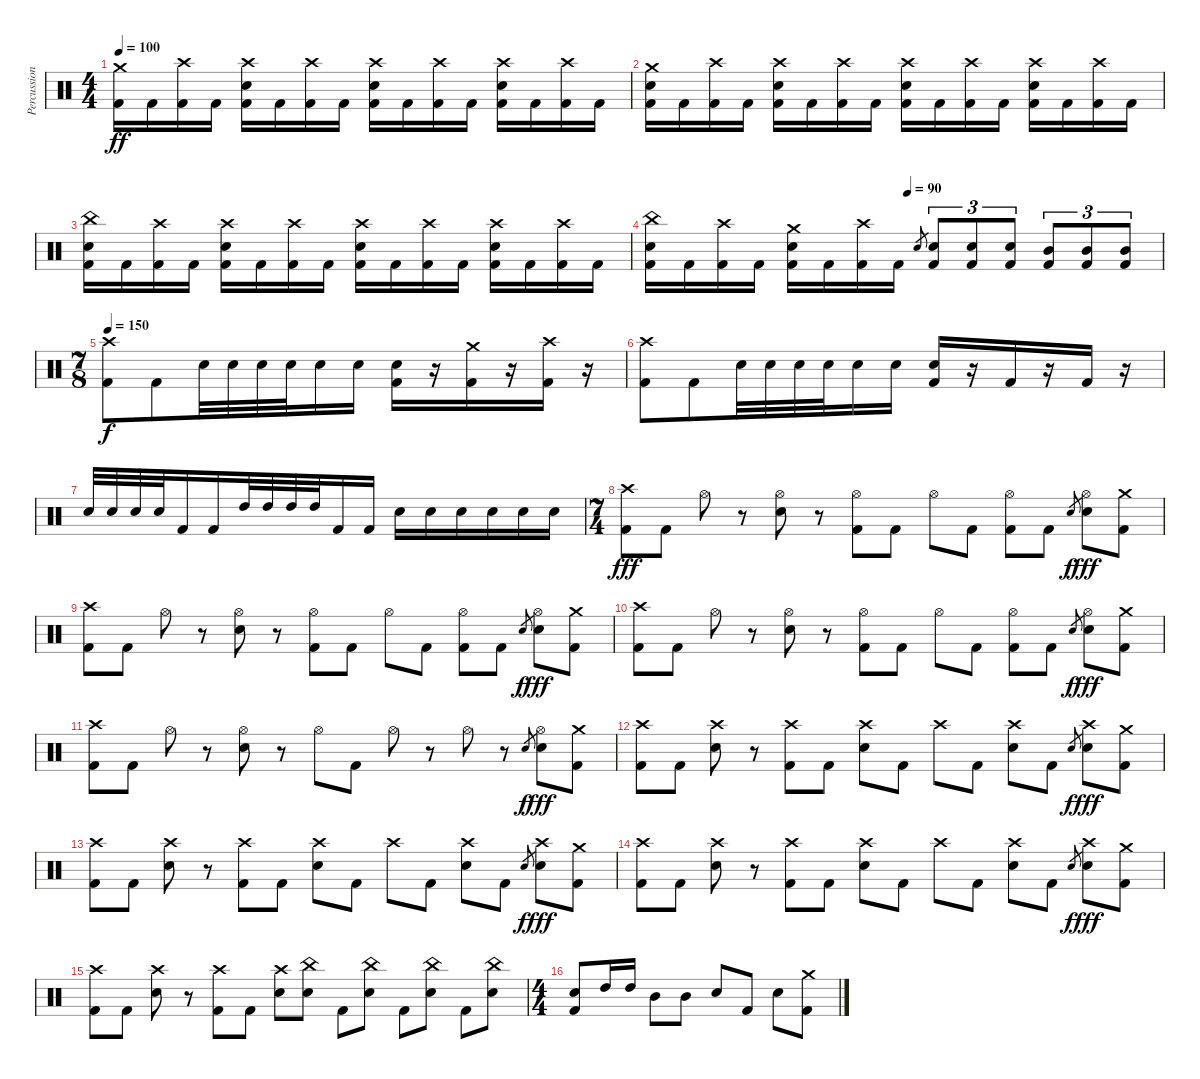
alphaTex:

\track ("Percussion" "Percussion") {instrument percussion}
\staff {score}
\articulation defaults
\ts (4 4)
\tempo 100
\clef neutral
\ks c
("Crash medium (hit)" "Kick (hit) 2").16{dy ff} "Kick (hit) 2".16 ("Crash high (hit)" "Kick (hit) 2").16 "Kick (hit) 2".16 ("Crash high (hit)" "Electric Snare (hit)" "Kick (hit) 2").16 "Kick (hit) 2".16 ("Crash high (hit)" "Kick (hit) 2").16 "Kick (hit) 2".16 ("Crash high (hit)" "Electric Snare (hit)" "Kick (hit) 2").16 "Kick (hit) 2".16 ("Crash high (hit)" "Kick (hit) 2").16 "Kick (hit) 2".16 ("Crash high (hit)" "Electric Snare (hit)" "Kick (hit) 2").16 "Kick (hit) 2".16 ("Crash high (hit)" "Kick (hit) 2").16 "Kick (hit) 2".16 |
("Crash medium (hit)" "Electric Snare (hit)" "Kick (hit) 2").16 "Kick (hit) 2".16 ("Crash high (hit)" "Kick (hit) 2").16 "Kick (hit) 2".16 ("Crash high (hit)" "Electric Snare (hit)" "Kick (hit) 2").16 "Kick (hit) 2".16 ("Crash high (hit)" "Kick (hit) 2").16 "Kick (hit) 2".16 ("Crash high (hit)" "Electric Snare (hit)" "Kick (hit) 2").16 "Kick (hit) 2".16 ("Crash high (hit)" "Kick (hit) 2").16 "Kick (hit) 2".16 ("Crash high (hit)" "Electric Snare (hit)" "Kick (hit) 2").16 "Kick (hit) 2".16 ("Crash high (hit)" "Kick (hit) 2").16 "Kick (hit) 2".16 |
("China (hit)" "Electric Snare (hit)" "Kick (hit) 2").16 "Kick (hit) 2".16 ("Crash high (hit)" "Kick (hit) 2").16 "Kick (hit) 2".16 ("Crash high (hit)" "Electric Snare (hit)" "Kick (hit) 2").16 "Kick (hit) 2".16 ("Crash high (hit)" "Kick (hit) 2").16 "Kick (hit) 2".16 ("Crash high (hit)" "Electric Snare (hit)" "Kick (hit) 2").16 "Kick (hit) 2".16 ("Crash high (hit)" "Kick (hit) 2").16 "Kick (hit) 2".16 ("Crash high (hit)" "Electric Snare (hit)" "Kick (hit) 2").16 "Kick (hit) 2".16 ("Crash high (hit)" "Kick (hit) 2").16 "Kick (hit) 2".16 |
\tempo (90 0.5)
("China (hit)" "Electric Snare (hit)" "Kick (hit) 2").16 "Kick (hit) 2".16 ("Crash high (hit)" "Kick (hit) 2").16 "Kick (hit) 2".16 ("Crash medium (hit)" "Electric Snare (hit)" "Kick (hit) 2").16 "Kick (hit) 2".16 ("Crash high (hit)" "Kick (hit) 2").16 "Kick (hit) 2".16 "Electric Snare (hit)".8{gr} ("Electric Snare (hit)" "Kick (hit) 2").8{tu (3 2)} ("Electric Snare (hit)" "Kick (hit) 2").8{tu (3 2)} ("Electric Snare (hit)" "Kick (hit) 2").8{tu (3 2)} ("Mid Tom (hit)" "Kick (hit) 2").8{tu (3 2)} ("Mid Tom (hit)" "Kick (hit) 2").8{tu (3 2)} ("Mid Tom (hit)" "Kick (hit) 2").8{tu (3 2)} |
\ts (7 8)
\tempo 150
("Crash high (hit)" "Kick (hit) 2").8{dy f} "Kick (hit) 2".8 "Electric Snare (hit)".32 "Electric Snare (hit)".32 "Electric Snare (hit)".32 "Electric Snare (hit)".32 "Electric Snare (hit)".16 "Electric Snare (hit)".16 ("Electric Snare (hit)" "Kick (hit) 2").16 r.16 ("Crash medium (hit)" "Kick (hit) 2").16 r.16 ("Crash high (hit)" "Kick (hit) 2").16 r.16 |
("Crash high (hit)" "Kick (hit) 2").8 "Kick (hit) 2".8 "Electric Snare (hit)".32 "Electric Snare (hit)".32 "Electric Snare (hit)".32 "Electric Snare (hit)".32 "Electric Snare (hit)".16 "Electric Snare (hit)".16 ("Electric Snare (hit)" "Kick (hit) 2").16 r.16 "Kick (hit) 2".16 r.16 "Kick (hit) 2".16 r.16 |
"Electric Snare (hit)".32 "Electric Snare (hit)".32 "Electric Snare (hit)".32 "Electric Snare (hit)".32 "Kick (hit) 2".16 "Kick (hit) 2".16 "High Tom (hit)".32 "High Tom (hit)".32 "High Tom (hit)".32 "High Tom (hit)".32 "Kick (hit) 2".16 "Kick (hit) 2".16 "Electric Snare (hit)".16 "Electric Snare (hit)".16 "Electric Snare (hit)".16 "Electric Snare (hit)".16 "Electric Snare (hit)".16 "Electric Snare (hit)".16 |
\ts (7 4)
("Crash high (hit)" "Kick (hit) 2").8{dy fff} "Kick (hit) 2".8 "Hi-Hat (open)".8 r.8 ("Hi-Hat (open)" "Electric Snare (hit)").8 r.8 ("Hi-Hat (open)" "Kick (hit) 2").8 "Kick (hit) 2".8 "Hi-Hat (open)".8 "Kick (hit) 2".8 ("Hi-Hat (open)" "Kick (hit) 2").8 "Kick (hit) 2".8 "Electric Snare (hit)".8{gr dy f} ("Hi-Hat (open)" "Electric Snare (hit)").8{dy fff} ("Crash medium (hit)" "Kick (hit) 2").8 |
("Crash high (hit)" "Kick (hit) 2").8 "Kick (hit) 2".8 "Hi-Hat (open)".8 r.8 ("Hi-Hat (open)" "Electric Snare (hit)").8 r.8 ("Hi-Hat (open)" "Kick (hit) 2").8 "Kick (hit) 2".8 "Hi-Hat (open)".8 "Kick (hit) 2".8 ("Hi-Hat (open)" "Kick (hit) 2").8 "Kick (hit) 2".8 "Electric Snare (hit)".8{gr dy f} ("Hi-Hat (open)" "Electric Snare (hit)").8{dy fff} ("Crash medium (hit)" "Kick (hit) 2").8 |
("Crash high (hit)" "Kick (hit) 2").8 "Kick (hit) 2".8 "Hi-Hat (open)".8 r.8 ("Hi-Hat (open)" "Electric Snare (hit)").8 r.8 ("Hi-Hat (open)" "Kick (hit) 2").8 "Kick (hit) 2".8 "Hi-Hat (open)".8 "Kick (hit) 2".8 ("Hi-Hat (open)" "Kick (hit) 2").8 "Kick (hit) 2".8 "Electric Snare (hit)".8{gr dy f} ("Hi-Hat (open)" "Electric Snare (hit)").8{dy fff} ("Crash medium (hit)" "Kick (hit) 2").8 |
("Crash high (hit)" "Kick (hit) 2").8 "Kick (hit) 2".8 "Hi-Hat (open)".8 r.8 ("Hi-Hat (open)" "Electric Snare (hit)").8 r.8 "Hi-Hat (open)".8 "Kick (hit) 2".8 "Hi-Hat (open)".8 r.8 "Hi-Hat (open)".8 r.8 "Electric Snare (hit)".8{gr dy f} ("Hi-Hat (open)" "Electric Snare (hit)").8{dy fff} ("Crash medium (hit)" "Kick (hit) 2").8 |
("Crash high (hit)" "Kick (hit) 2").8 "Kick (hit) 2".8 ("Crash high (hit)" "Electric Snare (hit)").8 r.8 ("Crash high (hit)" "Kick (hit) 2").8 "Kick (hit) 2".8 ("Crash high (hit)" "Electric Snare (hit)").8 "Kick (hit) 2".8 "Crash high (hit)".8 "Kick (hit) 2".8 ("Crash high (hit)" "Electric Snare (hit)").8 "Kick (hit) 2".8 "Electric Snare (hit)".8{gr dy f} ("Crash high (hit)" "Electric Snare (hit)").8{dy fff} ("Crash medium (hit)" "Kick (hit) 2").8 |
("Crash high (hit)" "Kick (hit) 2").8 "Kick (hit) 2".8 ("Crash high (hit)" "Electric Snare (hit)").8 r.8 ("Crash high (hit)" "Kick (hit) 2").8 "Kick (hit) 2".8 ("Crash high (hit)" "Electric Snare (hit)").8 "Kick (hit) 2".8 "Crash high (hit)".8 "Kick (hit) 2".8 ("Crash high (hit)" "Electric Snare (hit)").8 "Kick (hit) 2".8 "Electric Snare (hit)".8{gr dy f} ("Crash high (hit)" "Electric Snare (hit)").8{dy fff} ("Crash medium (hit)" "Kick (hit) 2").8 |
("Crash high (hit)" "Kick (hit) 2").8 "Kick (hit) 2".8 ("Crash high (hit)" "Electric Snare (hit)").8 r.8 ("Crash high (hit)" "Kick (hit) 2").8 "Kick (hit) 2".8 ("Crash high (hit)" "Electric Snare (hit)").8 "Kick (hit) 2".8 "Crash high (hit)".8 "Kick (hit) 2".8 ("Crash high (hit)" "Electric Snare (hit)").8 "Kick (hit) 2".8 "Electric Snare (hit)".8{gr dy f} ("Crash high (hit)" "Electric Snare (hit)").8{dy fff} ("Crash medium (hit)" "Kick (hit) 2").8 |
("Crash high (hit)" "Kick (hit) 2").8 "Kick (hit) 2".8 ("Crash high (hit)" "Electric Snare (hit)").8 r.8 ("Crash high (hit)" "Kick (hit) 2").8 "Kick (hit) 2".8 ("Crash high (hit)" "Electric Snare (hit)").8 ("China (hit)" "Electric Snare (hit)").8 "Kick (hit) 2".8 ("China (hit)" "Electric Snare (hit)").8 "Kick (hit) 2".8 ("China (hit)" "Electric Snare (hit)").8 "Kick (hit) 2".8 ("China (hit)" "Electric Snare (hit)").8 |
\ts (4 4)
("Electric Snare (hit)" "Kick (hit) 2").8 "High Tom (hit)".16 "High Tom (hit)".16 "Mid Tom (hit)".8 "Mid Tom (hit)".8 "Electric Snare (hit)".8 "Kick (hit) 2".8 "Electric Snare (hit)".8 ("Crash medium (hit)" "Kick (hit) 2").8
